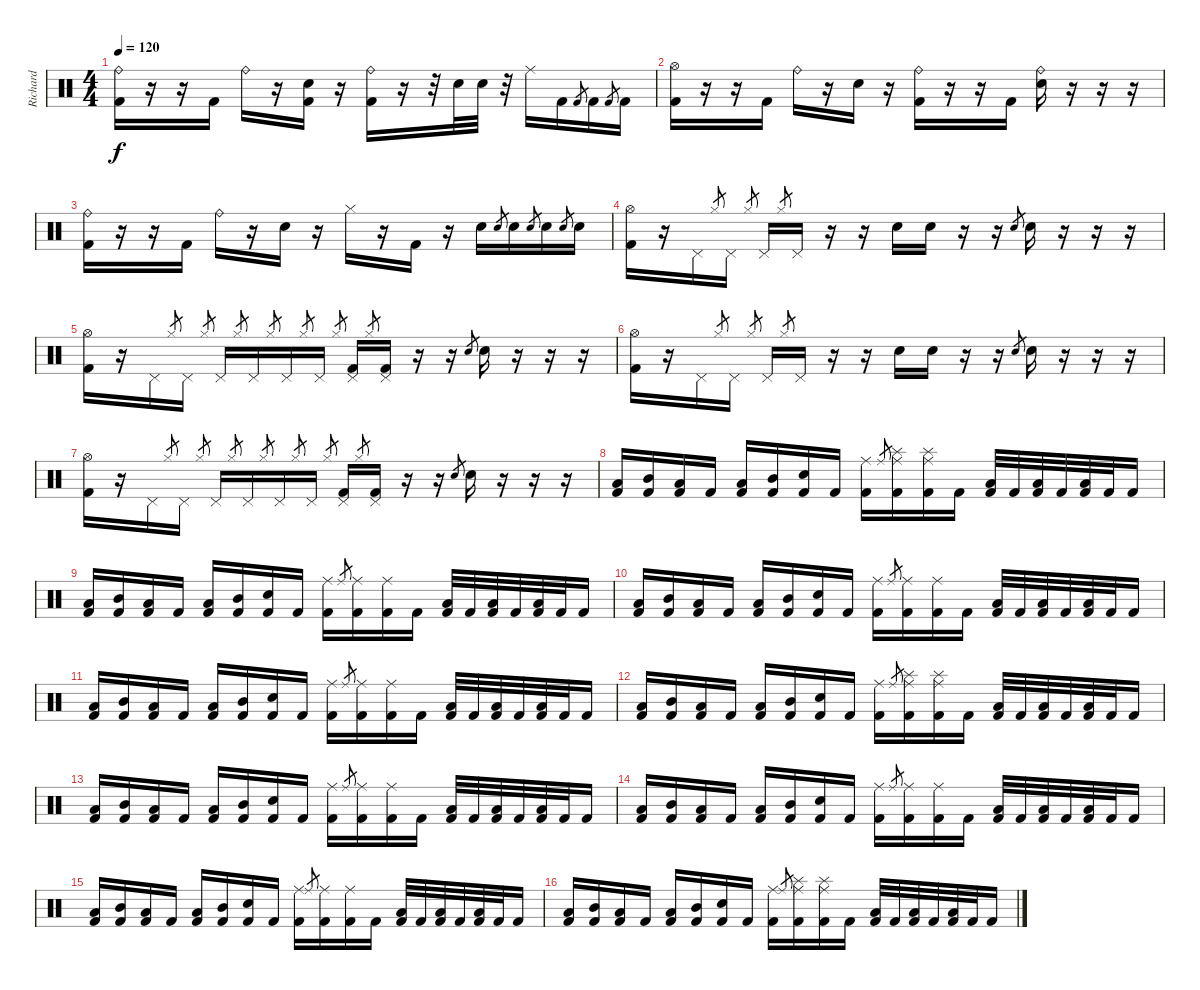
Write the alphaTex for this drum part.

\track ("Richard " "Richard ") {instrument percussion}
\staff {score}
\articulation defaults
\ts (4 4)
\tempo 120
\clef neutral
\ks c
("Ride (bell)" "Kick (hit) 2").16{dy f} r.16 r.16 "Kick (hit) 2".16 "Ride (bell)".16 r.16 ("Snare (hit) 2" "Kick (hit) 2").16 r.16 ("Ride (bell)" "Kick (hit) 2").16 r.16 r.32 "Snare (hit) 2".32 "Snare (hit) 2".32 r.32 "Ride (middle)".16 "Kick (hit) 2".16 "Kick (hit) 2".8{gr} "Kick (hit) 2".16 "Kick (hit) 2".8{gr} "Kick (hit) 2".16 |
("Hi-Hat (open)" "Kick (hit) 2").16 r.16 r.16 "Kick (hit) 2".16 "Ride (bell)".16 r.16 "Snare (hit) 2".16 r.16 ("Ride (bell)" "Kick (hit) 2").16 r.16 r.16 "Kick (hit) 2".16 ("Ride (bell)" "Snare (hit) 2").16 r.16 r.16 r.16 |
("Ride (bell)" "Kick (hit) 2").16 r.16 r.16 "Kick (hit) 2".16 "Ride (bell)".16 r.16 "Snare (hit) 2".16 r.16 "Hi-Hat (closed)".16 r.16 "Kick (hit) 2".16 r.16 "Snare (hit) 2".16 "Snare (hit) 2".8{gr} "Snare (hit) 2".16 "Snare (hit) 2".8{gr} "Snare (hit) 2".16 "Snare (hit) 2".8{gr} "Snare (hit) 2".16 |
("Hi-Hat (open)" "Kick (hit) 2").16 r.16 "Pedal Hi-Hat (hit)".16 "Hi-Hat (closed)".8{gr} "Pedal Hi-Hat (hit)".16 "Hi-Hat (closed)".8{gr} "Pedal Hi-Hat (hit)".16 "Hi-Hat (closed)".8{gr} "Pedal Hi-Hat (hit)".16 r.16 r.16 "Snare (hit) 2".16 "Snare (hit) 2".16 r.16 r.16 "Snare (hit) 2".8{gr} "Snare (hit) 2".16 r.16 r.16 r.16 |
("Hi-Hat (open)" "Kick (hit) 2").16 r.16 "Pedal Hi-Hat (hit)".16 "Hi-Hat (closed)".8{gr} "Pedal Hi-Hat (hit)".16 "Hi-Hat (closed)".8{gr} "Pedal Hi-Hat (hit)".16 "Hi-Hat (closed)".8{gr} "Pedal Hi-Hat (hit)".16 "Hi-Hat (closed)".8{gr} "Pedal Hi-Hat (hit)".16 "Hi-Hat (closed)".8{gr} "Pedal Hi-Hat (hit)".16 "Hi-Hat (closed)".8{gr} ("Pedal Hi-Hat (hit)" "Kick (hit) 2").16 "Hi-Hat (closed)".8{gr} ("Pedal Hi-Hat (hit)" "Kick (hit) 2").16 r.16 r.16 "Snare (hit) 2".8{gr} "Snare (hit) 2".16 r.16 r.16 r.16 |
("Hi-Hat (open)" "Kick (hit) 2").16 r.16 "Pedal Hi-Hat (hit)".16 "Hi-Hat (closed)".8{gr} "Pedal Hi-Hat (hit)".16 "Hi-Hat (closed)".8{gr} "Pedal Hi-Hat (hit)".16 "Hi-Hat (closed)".8{gr} "Pedal Hi-Hat (hit)".16 r.16 r.16 "Snare (hit) 2".16 "Snare (hit) 2".16 r.16 r.16 "Snare (hit) 2".8{gr} "Snare (hit) 2".16 r.16 r.16 r.16 |
("Hi-Hat (open)" "Kick (hit) 2").16 r.16 "Pedal Hi-Hat (hit)".16 "Hi-Hat (closed)".8{gr} "Pedal Hi-Hat (hit)".16 "Hi-Hat (closed)".8{gr} "Pedal Hi-Hat (hit)".16 "Hi-Hat (closed)".8{gr} "Pedal Hi-Hat (hit)".16 "Hi-Hat (closed)".8{gr} "Pedal Hi-Hat (hit)".16 "Hi-Hat (closed)".8{gr} "Pedal Hi-Hat (hit)".16 "Hi-Hat (closed)".8{gr} ("Pedal Hi-Hat (hit)" "Kick (hit) 2").16 "Hi-Hat (closed)".8{gr} ("Pedal Hi-Hat (hit)" "Kick (hit) 2").16 r.16 r.16 "Snare (hit) 2".8{gr} "Snare (hit) 2".16 r.16 r.16 r.16 |
("Low Tom (hit)" "Kick (hit) 2").16 ("Mid Tom (hit)" "Kick (hit) 2").16 ("Low Tom (hit)" "Kick (hit) 2").16 "Kick (hit) 2".16 ("Low Tom (hit)" "Kick (hit) 2").16 ("Mid Tom (hit)" "Kick (hit) 2").16 ("Snare (hit) 2" "Kick (hit) 2").16 "Kick (hit) 2".16 ("Ride (middle)" "Kick (hit) 2").16 "Ride (middle)".8{gr} ("Ride (middle)" "Splash (hit)" "Kick (hit) 2").16 ("Ride (middle)" "Splash (hit)" "Kick (hit) 2").16 "Kick (hit) 2".16 ("Low Tom (hit)" "Kick (hit) 2").32 "Kick (hit) 2".32 ("Low Tom (hit)" "Kick (hit) 2").32 "Kick (hit) 2".32 ("Low Tom (hit)" "Kick (hit) 2").32 "Kick (hit) 2".32 "Kick (hit) 2".16 |
("Low Tom (hit)" "Kick (hit) 2").16 ("Mid Tom (hit)" "Kick (hit) 2").16 ("Low Tom (hit)" "Kick (hit) 2").16 "Kick (hit) 2".16 ("Low Tom (hit)" "Kick (hit) 2").16 ("Mid Tom (hit)" "Kick (hit) 2").16 ("Snare (hit) 2" "Kick (hit) 2").16 "Kick (hit) 2".16 ("Ride (middle)" "Kick (hit) 2").16 "Ride (middle)".8{gr} ("Ride (middle)" "Kick (hit) 2").16 ("Ride (middle)" "Kick (hit) 2").16 "Kick (hit) 2".16 ("Low Tom (hit)" "Kick (hit) 2").32 "Kick (hit) 2".32 ("Low Tom (hit)" "Kick (hit) 2").32 "Kick (hit) 2".32 ("Low Tom (hit)" "Kick (hit) 2").32 "Kick (hit) 2".32 "Kick (hit) 2".16 |
("Low Tom (hit)" "Kick (hit) 2").16 ("Mid Tom (hit)" "Kick (hit) 2").16 ("Low Tom (hit)" "Kick (hit) 2").16 "Kick (hit) 2".16 ("Low Tom (hit)" "Kick (hit) 2").16 ("Mid Tom (hit)" "Kick (hit) 2").16 ("Snare (hit) 2" "Kick (hit) 2").16 "Kick (hit) 2".16 ("Ride (middle)" "Kick (hit) 2").16 "Ride (middle)".8{gr} ("Ride (middle)" "Kick (hit) 2").16 ("Ride (middle)" "Kick (hit) 2").16 "Kick (hit) 2".16 ("Low Tom (hit)" "Kick (hit) 2").32 "Kick (hit) 2".32 ("Low Tom (hit)" "Kick (hit) 2").32 "Kick (hit) 2".32 ("Low Tom (hit)" "Kick (hit) 2").32 "Kick (hit) 2".32 "Kick (hit) 2".16 |
("Low Tom (hit)" "Kick (hit) 2").16 ("Mid Tom (hit)" "Kick (hit) 2").16 ("Low Tom (hit)" "Kick (hit) 2").16 "Kick (hit) 2".16 ("Low Tom (hit)" "Kick (hit) 2").16 ("Mid Tom (hit)" "Kick (hit) 2").16 ("Snare (hit) 2" "Kick (hit) 2").16 "Kick (hit) 2".16 ("Ride (middle)" "Kick (hit) 2").16 "Ride (middle)".8{gr} ("Ride (middle)" "Kick (hit) 2").16 ("Ride (middle)" "Kick (hit) 2").16 "Kick (hit) 2".16 ("Low Tom (hit)" "Kick (hit) 2").32 "Kick (hit) 2".32 ("Low Tom (hit)" "Kick (hit) 2").32 "Kick (hit) 2".32 ("Low Tom (hit)" "Kick (hit) 2").32 "Kick (hit) 2".32 "Kick (hit) 2".16 |
("Low Tom (hit)" "Kick (hit) 2").16 ("Mid Tom (hit)" "Kick (hit) 2").16 ("Low Tom (hit)" "Kick (hit) 2").16 "Kick (hit) 2".16 ("Low Tom (hit)" "Kick (hit) 2").16 ("Mid Tom (hit)" "Kick (hit) 2").16 ("Snare (hit) 2" "Kick (hit) 2").16 "Kick (hit) 2".16 ("Ride (middle)" "Kick (hit) 2").16 "Ride (middle)".8{gr} ("Ride (middle)" "Splash (hit)" "Kick (hit) 2").16 ("Ride (middle)" "Splash (hit)" "Kick (hit) 2").16 "Kick (hit) 2".16 ("Low Tom (hit)" "Kick (hit) 2").32 "Kick (hit) 2".32 ("Low Tom (hit)" "Kick (hit) 2").32 "Kick (hit) 2".32 ("Low Tom (hit)" "Kick (hit) 2").32 "Kick (hit) 2".32 "Kick (hit) 2".16 |
("Low Tom (hit)" "Kick (hit) 2").16 ("Mid Tom (hit)" "Kick (hit) 2").16 ("Low Tom (hit)" "Kick (hit) 2").16 "Kick (hit) 2".16 ("Low Tom (hit)" "Kick (hit) 2").16 ("Mid Tom (hit)" "Kick (hit) 2").16 ("Snare (hit) 2" "Kick (hit) 2").16 "Kick (hit) 2".16 ("Ride (middle)" "Kick (hit) 2").16 "Ride (middle)".8{gr} ("Ride (middle)" "Kick (hit) 2").16 ("Ride (middle)" "Kick (hit) 2").16 "Kick (hit) 2".16 ("Low Tom (hit)" "Kick (hit) 2").32 "Kick (hit) 2".32 ("Low Tom (hit)" "Kick (hit) 2").32 "Kick (hit) 2".32 ("Low Tom (hit)" "Kick (hit) 2").32 "Kick (hit) 2".32 "Kick (hit) 2".16 |
("Low Tom (hit)" "Kick (hit) 2").16 ("Mid Tom (hit)" "Kick (hit) 2").16 ("Low Tom (hit)" "Kick (hit) 2").16 "Kick (hit) 2".16 ("Low Tom (hit)" "Kick (hit) 2").16 ("Mid Tom (hit)" "Kick (hit) 2").16 ("Snare (hit) 2" "Kick (hit) 2").16 "Kick (hit) 2".16 ("Ride (middle)" "Kick (hit) 2").16 "Ride (middle)".8{gr} ("Ride (middle)" "Kick (hit) 2").16 ("Ride (middle)" "Kick (hit) 2").16 "Kick (hit) 2".16 ("Low Tom (hit)" "Kick (hit) 2").32 "Kick (hit) 2".32 ("Low Tom (hit)" "Kick (hit) 2").32 "Kick (hit) 2".32 ("Low Tom (hit)" "Kick (hit) 2").32 "Kick (hit) 2".32 "Kick (hit) 2".16 |
("Low Tom (hit)" "Kick (hit) 2").16 ("Mid Tom (hit)" "Kick (hit) 2").16 ("Low Tom (hit)" "Kick (hit) 2").16 "Kick (hit) 2".16 ("Low Tom (hit)" "Kick (hit) 2").16 ("Mid Tom (hit)" "Kick (hit) 2").16 ("Snare (hit) 2" "Kick (hit) 2").16 "Kick (hit) 2".16 ("Ride (middle)" "Kick (hit) 2").16 "Ride (middle)".8{gr} ("Ride (middle)" "Kick (hit) 2").16 ("Ride (middle)" "Kick (hit) 2").16 "Kick (hit) 2".16 ("Low Tom (hit)" "Kick (hit) 2").32 "Kick (hit) 2".32 ("Low Tom (hit)" "Kick (hit) 2").32 "Kick (hit) 2".32 ("Low Tom (hit)" "Kick (hit) 2").32 "Kick (hit) 2".32 "Kick (hit) 2".16 |
("Low Tom (hit)" "Kick (hit) 2").16 ("Mid Tom (hit)" "Kick (hit) 2").16 ("Low Tom (hit)" "Kick (hit) 2").16 "Kick (hit) 2".16 ("Low Tom (hit)" "Kick (hit) 2").16 ("Mid Tom (hit)" "Kick (hit) 2").16 ("Snare (hit) 2" "Kick (hit) 2").16 "Kick (hit) 2".16 ("Ride (middle)" "Kick (hit) 2").16 "Ride (middle)".8{gr} ("Ride (middle)" "Splash (hit)" "Kick (hit) 2").16 ("Ride (middle)" "Splash (hit)" "Kick (hit) 2").16 "Kick (hit) 2".16 ("Low Tom (hit)" "Kick (hit) 2").32 "Kick (hit) 2".32 ("Low Tom (hit)" "Kick (hit) 2").32 "Kick (hit) 2".32 ("Low Tom (hit)" "Kick (hit) 2").32 "Kick (hit) 2".32 "Kick (hit) 2".16
